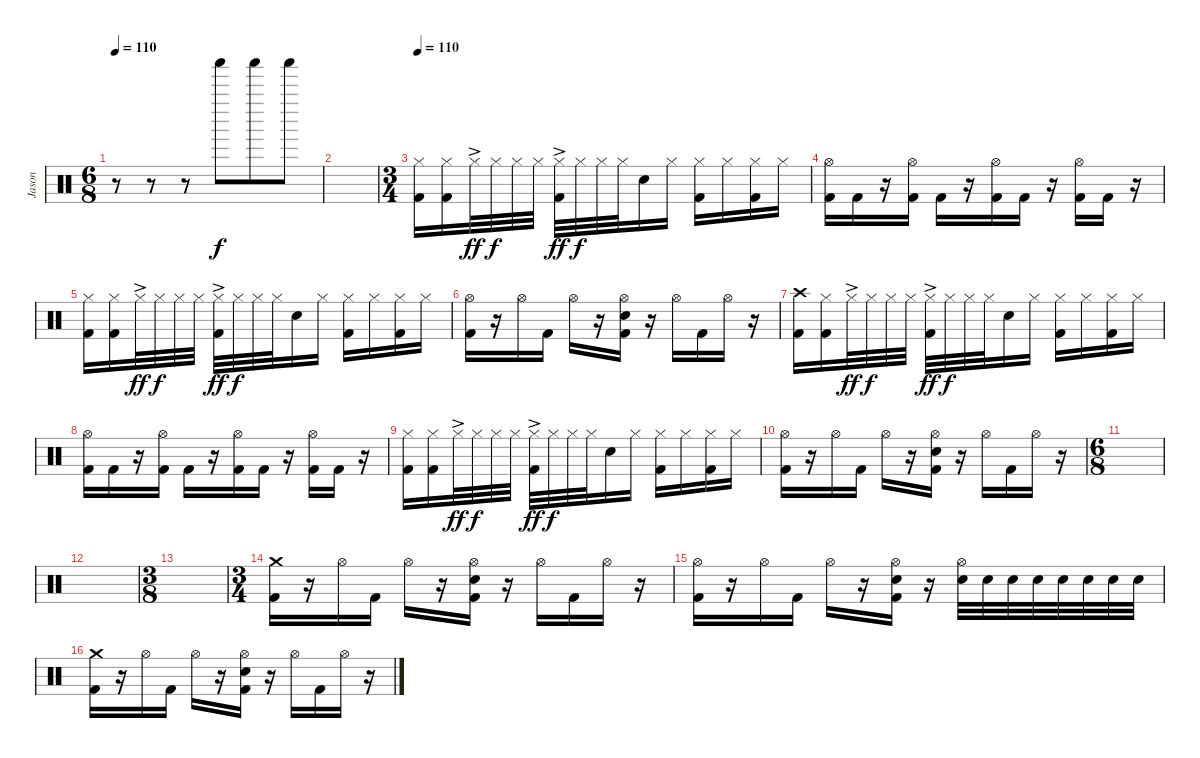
\track ("Jason" "Jason") {instrument percussion}
\staff {score}
\articulation defaults
\ts (6 8)
\tempo 110
\clef neutral
\ks c
r.8{dy f} r.8 r.8 "Shaker (hit)".8 "Shaker (hit)".8 "Shaker (hit)".8 |
|
\ts (3 4)
\tempo 110
("Hi-Hat (closed)" "Kick (hit) 2").16 ("Hi-Hat (closed)" "Kick (hit) 2").16 "Hi-Hat (closed)"{ac}.32{dy ff} "Hi-Hat (closed)".32{dy f} "Hi-Hat (closed)".32 "Hi-Hat (closed)".32 ("Hi-Hat (closed)"{ac} "Kick (hit) 2").32{dy ff} "Hi-Hat (closed)".32{dy f} "Hi-Hat (closed)".32 "Hi-Hat (closed)".32 "Snare (hit) 2".16 "Hi-Hat (closed)".16 ("Hi-Hat (closed)" "Kick (hit) 2").16 "Hi-Hat (closed)".16 ("Hi-Hat (closed)" "Kick (hit) 2").16 "Hi-Hat (closed)".16 |
("Hi-Hat (open)" "Kick (hit) 2").16 "Kick (hit) 2".16 r.16 ("Hi-Hat (open)" "Kick (hit) 2").16 "Kick (hit) 2".16 r.16 ("Hi-Hat (open)" "Kick (hit) 2").16 "Kick (hit) 2".16 r.16 ("Hi-Hat (open)" "Kick (hit) 2").16 "Kick (hit) 2".16 r.16 |
("Hi-Hat (closed)" "Kick (hit) 2").16 ("Hi-Hat (closed)" "Kick (hit) 2").16 "Hi-Hat (closed)"{ac}.32{dy ff} "Hi-Hat (closed)".32{dy f} "Hi-Hat (closed)".32 "Hi-Hat (closed)".32 ("Hi-Hat (closed)"{ac} "Kick (hit) 2").32{dy ff} "Hi-Hat (closed)".32{dy f} "Hi-Hat (closed)".32 "Hi-Hat (closed)".32 "Snare (hit) 2".16 "Hi-Hat (closed)".16 ("Hi-Hat (closed)" "Kick (hit) 2").16 "Hi-Hat (closed)".16 ("Hi-Hat (closed)" "Kick (hit) 2").16 "Hi-Hat (closed)".16 |
("Hi-Hat (open)" "Kick (hit) 2").16 r.16 "Hi-Hat (open)".16 "Kick (hit) 2".16 "Hi-Hat (open)".16 r.16 ("Hi-Hat (open)" "Snare (hit) 2" "Kick (hit) 2").16 r.16 "Hi-Hat (open)".16 "Kick (hit) 2".16 "Hi-Hat (open)".16 r.16 |
("Crash high (hit)" "Kick (hit) 2").16 ("Hi-Hat (closed)" "Kick (hit) 2").16 "Hi-Hat (closed)"{ac}.32{dy ff} "Hi-Hat (closed)".32{dy f} "Hi-Hat (closed)".32 "Hi-Hat (closed)".32 ("Hi-Hat (closed)"{ac} "Kick (hit) 2").32{dy ff} "Hi-Hat (closed)".32{dy f} "Hi-Hat (closed)".32 "Hi-Hat (closed)".32 "Snare (hit) 2".16 "Hi-Hat (closed)".16 ("Hi-Hat (closed)" "Kick (hit) 2").16 "Hi-Hat (closed)".16 ("Hi-Hat (closed)" "Kick (hit) 2").16 "Hi-Hat (closed)".16 |
("Hi-Hat (open)" "Kick (hit) 2").16 "Kick (hit) 2".16 r.16 ("Hi-Hat (open)" "Kick (hit) 2").16 "Kick (hit) 2".16 r.16 ("Hi-Hat (open)" "Kick (hit) 2").16 "Kick (hit) 2".16 r.16 ("Hi-Hat (open)" "Kick (hit) 2").16 "Kick (hit) 2".16 r.16 |
("Hi-Hat (closed)" "Kick (hit) 2").16 ("Hi-Hat (closed)" "Kick (hit) 2").16 "Hi-Hat (closed)"{ac}.32{dy ff} "Hi-Hat (closed)".32{dy f} "Hi-Hat (closed)".32 "Hi-Hat (closed)".32 ("Hi-Hat (closed)"{ac} "Kick (hit) 2").32{dy ff} "Hi-Hat (closed)".32{dy f} "Hi-Hat (closed)".32 "Hi-Hat (closed)".32 "Snare (hit) 2".16 "Hi-Hat (closed)".16 ("Hi-Hat (closed)" "Kick (hit) 2").16 "Hi-Hat (closed)".16 ("Hi-Hat (closed)" "Kick (hit) 2").16 "Hi-Hat (closed)".16 |
("Hi-Hat (open)" "Kick (hit) 2").16 r.16 "Hi-Hat (open)".16 "Kick (hit) 2".16 "Hi-Hat (open)".16 r.16 ("Hi-Hat (open)" "Snare (hit) 2" "Kick (hit) 2").16 r.16 "Hi-Hat (open)".16 "Kick (hit) 2".16 "Hi-Hat (open)".16 r.16 |
\ts (6 8)
|
|
\ts (3 8)
|
\ts (3 4)
("Crash medium (hit)" "Kick (hit) 2").16 r.16 "Hi-Hat (open)".16 "Kick (hit) 2".16 "Hi-Hat (open)".16 r.16 ("Hi-Hat (open)" "Snare (hit) 2" "Kick (hit) 2").16 r.16 "Hi-Hat (open)".16 "Kick (hit) 2".16 "Hi-Hat (open)".16 r.16 |
("Hi-Hat (open)" "Kick (hit) 2").16 r.16 "Hi-Hat (open)".16 "Kick (hit) 2".16 "Hi-Hat (open)".16 r.16 ("Hi-Hat (open)" "Snare (hit) 2" "Kick (hit) 2").16 r.16 ("Hi-Hat (open)" "Snare (hit) 2").32 "Snare (hit) 2".32 "Snare (hit) 2".32 "Snare (hit) 2".32 "Snare (hit) 2".32 "Snare (hit) 2".32 "Snare (hit) 2".32 "Snare (hit) 2".32 |
("Crash medium (hit)" "Kick (hit) 2").16 r.16 "Hi-Hat (open)".16 "Kick (hit) 2".16 "Hi-Hat (open)".16 r.16 ("Hi-Hat (open)" "Snare (hit) 2" "Kick (hit) 2").16 r.16 "Hi-Hat (open)".16 "Kick (hit) 2".16 "Hi-Hat (open)".16 r.16
